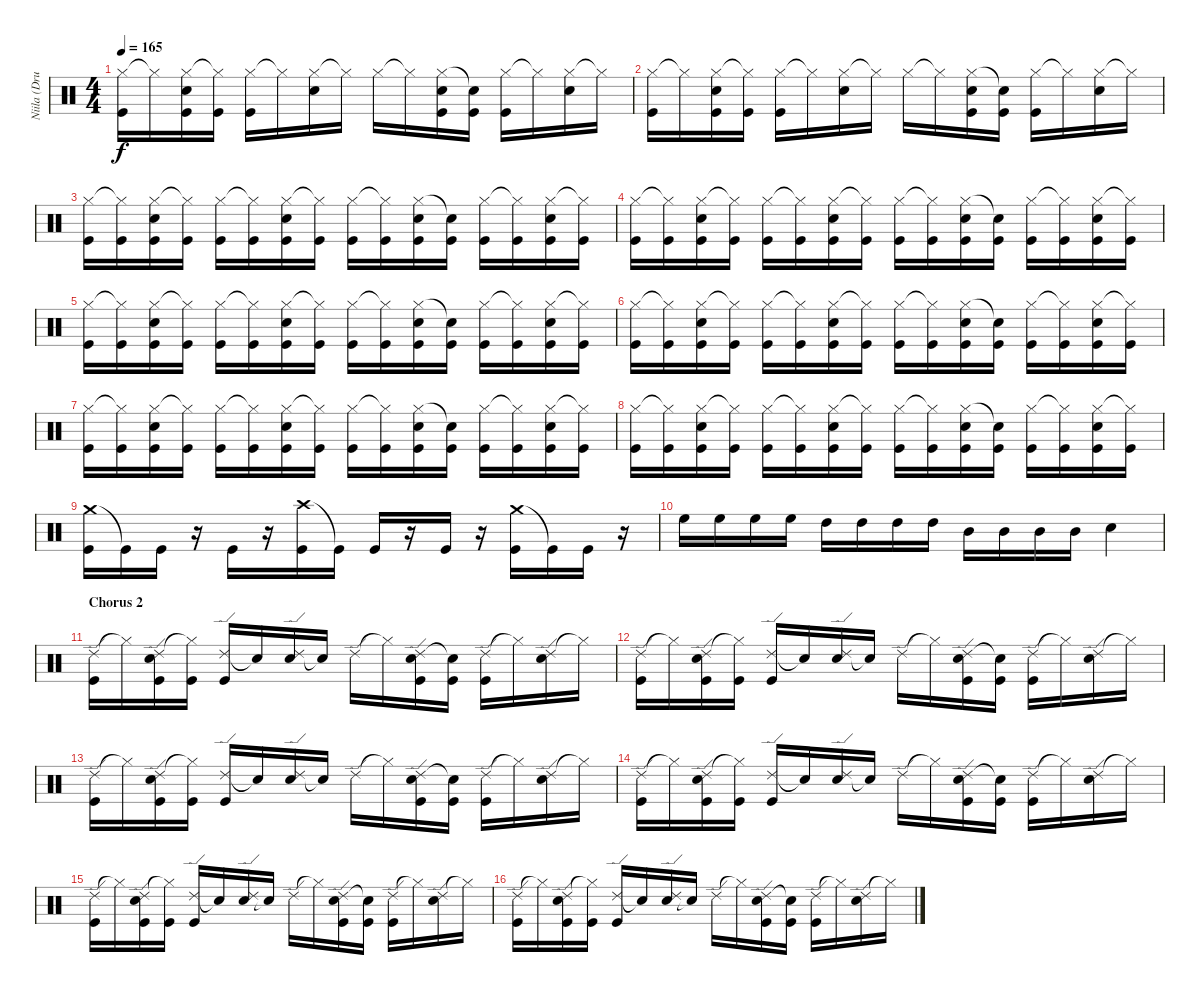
\track ("Niila (Drums)" "Niila (Dru") {instrument percussion}
\staff {score}
\articulation defaults
\ts (4 4)
\tempo 165
\clef neutral
\ks c
("Hi-Hat (closed)" "Kick (hit)").16{dy f} "Hi-Hat (closed)"{t}.16 ("Hi-Hat (closed)" "Snare (hit) 2" "Kick (hit)").16 ("Hi-Hat (closed)"{t} "Kick (hit)").16 ("Hi-Hat (closed)" "Kick (hit)").16 "Hi-Hat (closed)"{t}.16 ("Hi-Hat (closed)" "Snare (hit) 2").16 "Hi-Hat (closed)"{t}.16 "Hi-Hat (closed)".16 "Hi-Hat (closed)"{t}.16 ("Hi-Hat (closed)" "Snare (hit) 2" "Kick (hit)").16 ("Snare (hit)"{t} "Kick (hit)").16 ("Hi-Hat (closed)" "Kick (hit)").16 "Hi-Hat (closed)"{t}.16 ("Hi-Hat (closed)" "Snare (hit) 2").16 "Hi-Hat (closed)"{t}.16 |
("Hi-Hat (closed)" "Kick (hit)").16 "Hi-Hat (closed)"{t}.16 ("Hi-Hat (closed)" "Snare (hit) 2" "Kick (hit)").16 ("Hi-Hat (closed)"{t} "Kick (hit)").16 ("Hi-Hat (closed)" "Kick (hit)").16 "Hi-Hat (closed)"{t}.16 ("Hi-Hat (closed)" "Snare (hit) 2").16 "Hi-Hat (closed)"{t}.16 "Hi-Hat (closed)".16 "Hi-Hat (closed)"{t}.16 ("Hi-Hat (closed)" "Snare (hit) 2" "Kick (hit)").16 ("Snare (hit)"{t} "Kick (hit)").16 ("Hi-Hat (closed)" "Kick (hit)").16 "Hi-Hat (closed)"{t}.16 ("Hi-Hat (closed)" "Snare (hit) 2").16 "Hi-Hat (closed)"{t}.16 |
("Hi-Hat (closed)" "Kick (hit)").16 ("Hi-Hat (closed)"{t} "Kick (hit)").16 ("Hi-Hat (closed)" "Snare (hit) 2" "Kick (hit)").16 ("Hi-Hat (closed)"{t} "Kick (hit)").16 ("Hi-Hat (closed)" "Kick (hit)").16 ("Hi-Hat (closed)"{t} "Kick (hit)").16 ("Hi-Hat (closed)" "Snare (hit) 2" "Kick (hit)").16 ("Hi-Hat (closed)"{t} "Kick (hit)").16 ("Hi-Hat (closed)" "Kick (hit)").16 ("Hi-Hat (closed)"{t} "Kick (hit)").16 ("Hi-Hat (closed)" "Snare (hit) 2" "Kick (hit)").16 ("Snare (hit)"{t} "Kick (hit)").16 ("Hi-Hat (closed)" "Kick (hit)").16 ("Hi-Hat (closed)"{t} "Kick (hit)").16 ("Hi-Hat (closed)" "Snare (hit) 2" "Kick (hit)").16 ("Hi-Hat (closed)"{t} "Kick (hit)").16 |
("Hi-Hat (closed)" "Kick (hit)").16 ("Hi-Hat (closed)"{t} "Kick (hit)").16 ("Hi-Hat (closed)" "Snare (hit) 2" "Kick (hit)").16 ("Hi-Hat (closed)"{t} "Kick (hit)").16 ("Hi-Hat (closed)" "Kick (hit)").16 ("Hi-Hat (closed)"{t} "Kick (hit)").16 ("Hi-Hat (closed)" "Snare (hit) 2" "Kick (hit)").16 ("Hi-Hat (closed)"{t} "Kick (hit)").16 ("Hi-Hat (closed)" "Kick (hit)").16 ("Hi-Hat (closed)"{t} "Kick (hit)").16 ("Hi-Hat (closed)" "Snare (hit) 2" "Kick (hit)").16 ("Snare (hit)"{t} "Kick (hit)").16 ("Hi-Hat (closed)" "Kick (hit)").16 ("Hi-Hat (closed)"{t} "Kick (hit)").16 ("Hi-Hat (closed)" "Snare (hit) 2" "Kick (hit)").16 ("Hi-Hat (closed)"{t} "Kick (hit)").16 |
("Hi-Hat (closed)" "Kick (hit)").16 ("Hi-Hat (closed)"{t} "Kick (hit)").16 ("Hi-Hat (closed)" "Snare (hit) 2" "Kick (hit)").16 ("Hi-Hat (closed)"{t} "Kick (hit)").16 ("Hi-Hat (closed)" "Kick (hit)").16 ("Hi-Hat (closed)"{t} "Kick (hit)").16 ("Hi-Hat (closed)" "Snare (hit) 2" "Kick (hit)").16 ("Hi-Hat (closed)"{t} "Kick (hit)").16 ("Hi-Hat (closed)" "Kick (hit)").16 ("Hi-Hat (closed)"{t} "Kick (hit)").16 ("Hi-Hat (closed)" "Snare (hit) 2" "Kick (hit)").16 ("Snare (hit)"{t} "Kick (hit)").16 ("Hi-Hat (closed)" "Kick (hit)").16 ("Hi-Hat (closed)"{t} "Kick (hit)").16 ("Hi-Hat (closed)" "Snare (hit) 2" "Kick (hit)").16 ("Hi-Hat (closed)"{t} "Kick (hit)").16 |
("Hi-Hat (closed)" "Kick (hit)").16 ("Hi-Hat (closed)"{t} "Kick (hit)").16 ("Hi-Hat (closed)" "Snare (hit) 2" "Kick (hit)").16 ("Hi-Hat (closed)"{t} "Kick (hit)").16 ("Hi-Hat (closed)" "Kick (hit)").16 ("Hi-Hat (closed)"{t} "Kick (hit)").16 ("Hi-Hat (closed)" "Snare (hit) 2" "Kick (hit)").16 ("Hi-Hat (closed)"{t} "Kick (hit)").16 ("Hi-Hat (closed)" "Kick (hit)").16 ("Hi-Hat (closed)"{t} "Kick (hit)").16 ("Hi-Hat (closed)" "Snare (hit) 2" "Kick (hit)").16 ("Snare (hit)"{t} "Kick (hit)").16 ("Hi-Hat (closed)" "Kick (hit)").16 ("Hi-Hat (closed)"{t} "Kick (hit)").16 ("Hi-Hat (closed)" "Snare (hit) 2" "Kick (hit)").16 ("Hi-Hat (closed)"{t} "Kick (hit)").16 |
("Hi-Hat (closed)" "Kick (hit)").16 ("Hi-Hat (closed)"{t} "Kick (hit)").16 ("Hi-Hat (closed)" "Snare (hit) 2" "Kick (hit)").16 ("Hi-Hat (closed)"{t} "Kick (hit)").16 ("Hi-Hat (closed)" "Kick (hit)").16 ("Hi-Hat (closed)"{t} "Kick (hit)").16 ("Hi-Hat (closed)" "Snare (hit) 2" "Kick (hit)").16 ("Hi-Hat (closed)"{t} "Kick (hit)").16 ("Hi-Hat (closed)" "Kick (hit)").16 ("Hi-Hat (closed)"{t} "Kick (hit)").16 ("Hi-Hat (closed)" "Snare (hit) 2" "Kick (hit)").16 ("Snare (hit)"{t} "Kick (hit)").16 ("Hi-Hat (closed)" "Kick (hit)").16 ("Hi-Hat (closed)"{t} "Kick (hit)").16 ("Hi-Hat (closed)" "Snare (hit) 2" "Kick (hit)").16 ("Hi-Hat (closed)"{t} "Kick (hit)").16 |
("Hi-Hat (closed)" "Kick (hit)").16 ("Hi-Hat (closed)"{t} "Kick (hit)").16 ("Hi-Hat (closed)" "Snare (hit) 2" "Kick (hit)").16 ("Hi-Hat (closed)"{t} "Kick (hit)").16 ("Hi-Hat (closed)" "Kick (hit)").16 ("Hi-Hat (closed)"{t} "Kick (hit)").16 ("Hi-Hat (closed)" "Snare (hit) 2" "Kick (hit)").16 ("Hi-Hat (closed)"{t} "Kick (hit)").16 ("Hi-Hat (closed)" "Kick (hit)").16 ("Hi-Hat (closed)"{t} "Kick (hit)").16 ("Hi-Hat (closed)" "Snare (hit) 2" "Kick (hit)").16 ("Snare (hit)"{t} "Kick (hit)").16 ("Hi-Hat (closed)" "Kick (hit)").16 ("Hi-Hat (closed)"{t} "Kick (hit)").16 ("Hi-Hat (closed)" "Snare (hit) 2" "Kick (hit)").16 ("Hi-Hat (closed)"{t} "Kick (hit)").16 |
("Crash medium (hit)" "Kick (hit)").16 "Kick (hit)"{t}.16 "Kick (hit)".16 r.16 "Kick (hit)".16 r.16 ("Crash high (hit)" "Kick (hit)").16 "Kick (hit)"{t}.16 "Kick (hit)".16 r.16 "Kick (hit)".16 r.16 ("Crash medium (hit)" "Kick (hit)").16 "Kick (hit)"{t}.16 "Kick (hit)".16 r.16 |
"High Floor Tom (hit)".16 "High Floor Tom (hit)".16 "High Floor Tom (hit)".16 "High Floor Tom (hit)".16 "High Tom (hit)".16 "High Tom (hit)".16 "High Tom (hit)".16 "High Tom (hit)".16 "Mid Tom (hit)".16 "Mid Tom (hit)".16 "Mid Tom (hit)".16 "Mid Tom (hit)".16 "Snare (hit) 2".4 |
\section ("" "Chorus 2")
("Ride (edge) 2" "Kick (hit)").16 "Hi-Hat (closed)"{t}.16 ("Ride (edge) 2" "Snare (hit) 2" "Kick (hit)").16 ("Hi-Hat (closed)"{t} "Kick (hit)").16 ("Ride (edge) 2" "Kick (hit)").16 "Snare (hit)"{t}.16 ("Ride (edge) 2" "Snare (hit) 2").16 "Snare (hit)"{t}.16 "Ride (edge) 2".16 "Hi-Hat (closed)"{t}.16 ("Ride (edge) 2" "Snare (hit) 2" "Kick (hit)").16 ("Snare (hit)"{t} "Kick (hit)").16 ("Ride (edge) 2" "Kick (hit)").16 "Hi-Hat (closed)"{t}.16 ("Ride (edge) 2" "Snare (hit) 2").16 "Hi-Hat (closed)"{t}.16 |
("Ride (edge) 2" "Kick (hit)").16 "Hi-Hat (closed)"{t}.16 ("Ride (edge) 2" "Snare (hit) 2" "Kick (hit)").16 ("Hi-Hat (closed)"{t} "Kick (hit)").16 ("Ride (edge) 2" "Kick (hit)").16 "Snare (hit)"{t}.16 ("Ride (edge) 2" "Snare (hit) 2").16 "Snare (hit)"{t}.16 "Ride (edge) 2".16 "Hi-Hat (closed)"{t}.16 ("Ride (edge) 2" "Snare (hit) 2" "Kick (hit)").16 ("Snare (hit)"{t} "Kick (hit)").16 ("Ride (edge) 2" "Kick (hit)").16 "Hi-Hat (closed)"{t}.16 ("Ride (edge) 2" "Snare (hit) 2").16 "Hi-Hat (closed)"{t}.16 |
("Ride (edge) 2" "Kick (hit)").16 "Hi-Hat (closed)"{t}.16 ("Ride (edge) 2" "Snare (hit) 2" "Kick (hit)").16 ("Hi-Hat (closed)"{t} "Kick (hit)").16 ("Ride (edge) 2" "Kick (hit)").16 "Snare (hit)"{t}.16 ("Ride (edge) 2" "Snare (hit) 2").16 "Snare (hit)"{t}.16 "Ride (edge) 2".16 "Hi-Hat (closed)"{t}.16 ("Ride (edge) 2" "Snare (hit) 2" "Kick (hit)").16 ("Snare (hit)"{t} "Kick (hit)").16 ("Ride (edge) 2" "Kick (hit)").16 "Hi-Hat (closed)"{t}.16 ("Ride (edge) 2" "Snare (hit) 2").16 "Hi-Hat (closed)"{t}.16 |
("Ride (edge) 2" "Kick (hit)").16 "Hi-Hat (closed)"{t}.16 ("Ride (edge) 2" "Snare (hit) 2" "Kick (hit)").16 ("Hi-Hat (closed)"{t} "Kick (hit)").16 ("Ride (edge) 2" "Kick (hit)").16 "Snare (hit)"{t}.16 ("Ride (edge) 2" "Snare (hit) 2").16 "Snare (hit)"{t}.16 "Ride (edge) 2".16 "Hi-Hat (closed)"{t}.16 ("Ride (edge) 2" "Snare (hit) 2" "Kick (hit)").16 ("Snare (hit)"{t} "Kick (hit)").16 ("Ride (edge) 2" "Kick (hit)").16 "Hi-Hat (closed)"{t}.16 ("Ride (edge) 2" "Snare (hit) 2").16 "Hi-Hat (closed)"{t}.16 |
("Ride (edge) 2" "Kick (hit)").16 "Hi-Hat (closed)"{t}.16 ("Ride (edge) 2" "Snare (hit) 2" "Kick (hit)").16 ("Hi-Hat (closed)"{t} "Kick (hit)").16 ("Ride (edge) 2" "Kick (hit)").16 "Snare (hit)"{t}.16 ("Ride (edge) 2" "Snare (hit) 2").16 "Snare (hit)"{t}.16 "Ride (edge) 2".16 "Hi-Hat (closed)"{t}.16 ("Ride (edge) 2" "Snare (hit) 2" "Kick (hit)").16 ("Snare (hit)"{t} "Kick (hit)").16 ("Ride (edge) 2" "Kick (hit)").16 "Hi-Hat (closed)"{t}.16 ("Ride (edge) 2" "Snare (hit) 2").16 "Hi-Hat (closed)"{t}.16 |
("Ride (edge) 2" "Kick (hit)").16 "Hi-Hat (closed)"{t}.16 ("Ride (edge) 2" "Snare (hit) 2" "Kick (hit)").16 ("Hi-Hat (closed)"{t} "Kick (hit)").16 ("Ride (edge) 2" "Kick (hit)").16 "Snare (hit)"{t}.16 ("Ride (edge) 2" "Snare (hit) 2").16 "Snare (hit)"{t}.16 "Ride (edge) 2".16 "Hi-Hat (closed)"{t}.16 ("Ride (edge) 2" "Snare (hit) 2" "Kick (hit)").16 ("Snare (hit)"{t} "Kick (hit)").16 ("Ride (edge) 2" "Kick (hit)").16 "Hi-Hat (closed)"{t}.16 ("Ride (edge) 2" "Snare (hit) 2").16 "Hi-Hat (closed)"{t}.16
